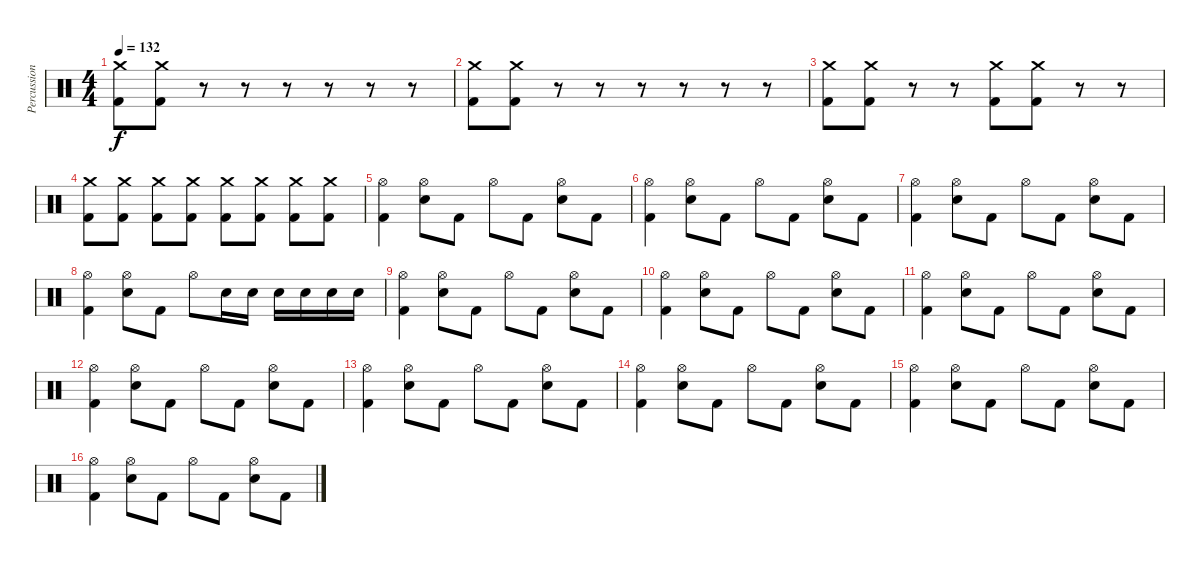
\track ("Percussions" "Percussion") {instrument percussion}
\staff {score}
\articulation defaults
\ts (4 4)
\tempo 132
\clef neutral
\ks c
("Kick (hit) 2" "Crash medium (hit)").8{dy f} ("Kick (hit) 2" "Crash medium (hit)").8 r.8 r.8 r.8 r.8 r.8 r.8 |
("Kick (hit) 2" "Crash medium (hit)").8 ("Kick (hit) 2" "Crash medium (hit)").8 r.8 r.8 r.8 r.8 r.8 r.8 |
("Kick (hit) 2" "Crash medium (hit)").8 ("Kick (hit) 2" "Crash medium (hit)").8 r.8 r.8 ("Kick (hit) 2" "Crash medium (hit)").8 ("Kick (hit) 2" "Crash medium (hit)").8 r.8 r.8 |
("Kick (hit) 2" "Crash medium (hit)").8 ("Kick (hit) 2" "Crash medium (hit)").8 ("Kick (hit) 2" "Crash medium (hit)").8 ("Kick (hit) 2" "Crash medium (hit)").8 ("Kick (hit) 2" "Crash medium (hit)").8 ("Kick (hit) 2" "Crash medium (hit)").8 ("Kick (hit) 2" "Crash medium (hit)").8 ("Kick (hit) 2" "Crash medium (hit)").8 |
("Kick (hit) 2" "Hi-Hat (open)").4 ("Electric Snare (hit)" "Hi-Hat (open)").8 "Kick (hit) 2".8 "Hi-Hat (open)".8 "Kick (hit) 2".8 ("Electric Snare (hit)" "Hi-Hat (open)").8 "Kick (hit) 2".8 |
("Kick (hit) 2" "Hi-Hat (open)").4 ("Electric Snare (hit)" "Hi-Hat (open)").8 "Kick (hit) 2".8 "Hi-Hat (open)".8 "Kick (hit) 2".8 ("Electric Snare (hit)" "Hi-Hat (open)").8 "Kick (hit) 2".8 |
("Kick (hit) 2" "Hi-Hat (open)").4 ("Electric Snare (hit)" "Hi-Hat (open)").8 "Kick (hit) 2".8 "Hi-Hat (open)".8 "Kick (hit) 2".8 ("Electric Snare (hit)" "Hi-Hat (open)").8 "Kick (hit) 2".8 |
("Kick (hit) 2" "Hi-Hat (open)").4 ("Electric Snare (hit)" "Hi-Hat (open)").8 "Kick (hit) 2".8 "Hi-Hat (open)".8 "Electric Snare (hit)".16 "Electric Snare (hit)".16 "Electric Snare (hit)".16 "Electric Snare (hit)".16 "Electric Snare (hit)".16 "Electric Snare (hit)".16 |
("Kick (hit) 2" "Hi-Hat (open)").4 ("Electric Snare (hit)" "Hi-Hat (open)").8 "Kick (hit) 2".8 "Hi-Hat (open)".8 "Kick (hit) 2".8 ("Electric Snare (hit)" "Hi-Hat (open)").8 "Kick (hit) 2".8 |
("Kick (hit) 2" "Hi-Hat (open)").4 ("Electric Snare (hit)" "Hi-Hat (open)").8 "Kick (hit) 2".8 "Hi-Hat (open)".8 "Kick (hit) 2".8 ("Electric Snare (hit)" "Hi-Hat (open)").8 "Kick (hit) 2".8 |
("Kick (hit) 2" "Hi-Hat (open)").4 ("Electric Snare (hit)" "Hi-Hat (open)").8 "Kick (hit) 2".8 "Hi-Hat (open)".8 "Kick (hit) 2".8 ("Electric Snare (hit)" "Hi-Hat (open)").8 "Kick (hit) 2".8 |
("Kick (hit) 2" "Hi-Hat (open)").4 ("Electric Snare (hit)" "Hi-Hat (open)").8 "Kick (hit) 2".8 "Hi-Hat (open)".8 "Kick (hit) 2".8 ("Electric Snare (hit)" "Hi-Hat (open)").8 "Kick (hit) 2".8 |
("Kick (hit) 2" "Hi-Hat (open)").4 ("Electric Snare (hit)" "Hi-Hat (open)").8 "Kick (hit) 2".8 "Hi-Hat (open)".8 "Kick (hit) 2".8 ("Electric Snare (hit)" "Hi-Hat (open)").8 "Kick (hit) 2".8 |
("Kick (hit) 2" "Hi-Hat (open)").4 ("Electric Snare (hit)" "Hi-Hat (open)").8 "Kick (hit) 2".8 "Hi-Hat (open)".8 "Kick (hit) 2".8 ("Electric Snare (hit)" "Hi-Hat (open)").8 "Kick (hit) 2".8 |
("Kick (hit) 2" "Hi-Hat (open)").4 ("Electric Snare (hit)" "Hi-Hat (open)").8 "Kick (hit) 2".8 "Hi-Hat (open)".8 "Kick (hit) 2".8 ("Electric Snare (hit)" "Hi-Hat (open)").8 "Kick (hit) 2".8 |
("Kick (hit) 2" "Hi-Hat (open)").4 ("Electric Snare (hit)" "Hi-Hat (open)").8 "Kick (hit) 2".8 "Hi-Hat (open)".8 "Kick (hit) 2".8 ("Electric Snare (hit)" "Hi-Hat (open)").8 "Kick (hit) 2".8
